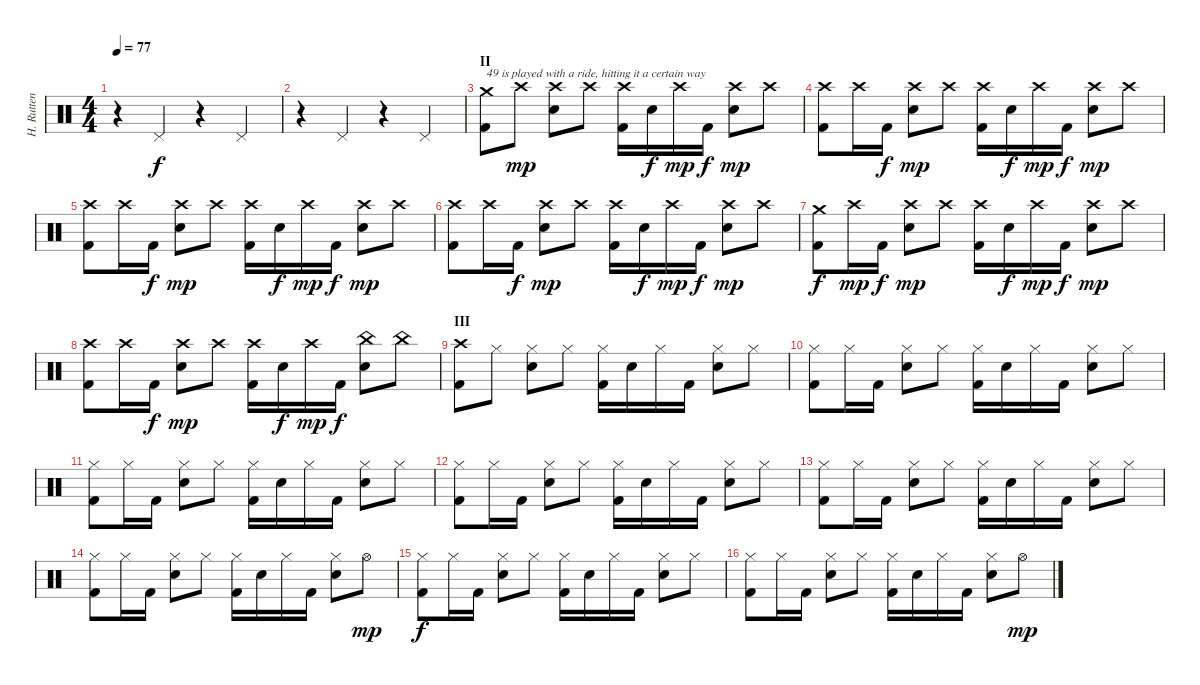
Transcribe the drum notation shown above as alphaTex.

\track ("H. Rutten" "H. Rutten") {instrument percussion}
\staff {score}
\articulation defaults
\ts (4 4)
\tempo 77
\clef neutral
\ks c
r.4{dy f} "Pedal Hi-Hat (hit)".4 r.4 "Pedal Hi-Hat (hit)".4 |
r.4 "Pedal Hi-Hat (hit)".4 r.4 "Pedal Hi-Hat (hit)".4 |
\section ("" "II")
("Kick (hit) 2" "Crash medium (hit)").8{txt "49 is played with a ride, hitting it a certain way"} "Crash high (hit)".8{dy mp} ("Electric Snare (hit)" "Crash high (hit)").8 "Crash high (hit)".8 ("Kick (hit) 2" "Crash high (hit)").16 "Electric Snare (hit)".16{dy f} "Crash high (hit)".16{dy mp} "Kick (hit) 2".16{dy f} ("Electric Snare (hit)" "Crash high (hit)").8{dy mp} "Crash high (hit)".8 |
("Kick (hit) 2" "Crash high (hit)").8 "Crash high (hit)".16 "Kick (hit) 2".16{dy f} ("Electric Snare (hit)" "Crash high (hit)").8{dy mp} "Crash high (hit)".8 ("Kick (hit) 2" "Crash high (hit)").16 "Electric Snare (hit)".16{dy f} "Crash high (hit)".16{dy mp} "Kick (hit) 2".16{dy f} ("Electric Snare (hit)" "Crash high (hit)").8{dy mp} "Crash high (hit)".8 |
("Kick (hit) 2" "Crash high (hit)").8 "Crash high (hit)".16 "Kick (hit) 2".16{dy f} ("Electric Snare (hit)" "Crash high (hit)").8{dy mp} "Crash high (hit)".8 ("Kick (hit) 2" "Crash high (hit)").16 "Electric Snare (hit)".16{dy f} "Crash high (hit)".16{dy mp} "Kick (hit) 2".16{dy f} ("Electric Snare (hit)" "Crash high (hit)").8{dy mp} "Crash high (hit)".8 |
("Kick (hit) 2" "Crash high (hit)").8 "Crash high (hit)".16 "Kick (hit) 2".16{dy f} ("Electric Snare (hit)" "Crash high (hit)").8{dy mp} "Crash high (hit)".8 ("Kick (hit) 2" "Crash high (hit)").16 "Electric Snare (hit)".16{dy f} "Crash high (hit)".16{dy mp} "Kick (hit) 2".16{dy f} ("Electric Snare (hit)" "Crash high (hit)").8{dy mp} "Crash high (hit)".8 |
("Kick (hit) 2" "Crash medium (hit)").8{dy f} "Crash high (hit)".16{dy mp} "Kick (hit) 2".16{dy f} ("Electric Snare (hit)" "Crash high (hit)").8{dy mp} "Crash high (hit)".8 ("Kick (hit) 2" "Crash high (hit)").16 "Electric Snare (hit)".16{dy f} "Crash high (hit)".16{dy mp} "Kick (hit) 2".16{dy f} ("Electric Snare (hit)" "Crash high (hit)").8{dy mp} "Crash high (hit)".8 |
("Kick (hit) 2" "Crash high (hit)").8 "Crash high (hit)".16 "Kick (hit) 2".16{dy f} ("Electric Snare (hit)" "Crash high (hit)").8{dy mp} "Crash high (hit)".8 ("Kick (hit) 2" "Crash high (hit)").16 "Electric Snare (hit)".16{dy f} "Crash high (hit)".16{dy mp} "Kick (hit) 2".16{dy f} ("Electric Snare (hit)" "China (hit)").8 "China (hit)".8 |
\section ("" "III")
("Kick (hit) 2" "Crash high (hit)").8 "Hi-Hat (closed)".8 ("Electric Snare (hit)" "Hi-Hat (closed)").8 "Hi-Hat (closed)".8 ("Kick (hit) 2" "Hi-Hat (closed)").16 "Electric Snare (hit)".16 "Hi-Hat (closed)".16 "Kick (hit) 2".16 ("Electric Snare (hit)" "Hi-Hat (closed)").8 "Hi-Hat (closed)".8 |
("Kick (hit) 2" "Hi-Hat (closed)").8 "Hi-Hat (closed)".16 "Kick (hit) 2".16 ("Electric Snare (hit)" "Hi-Hat (closed)").8 "Hi-Hat (closed)".8 ("Kick (hit) 2" "Hi-Hat (closed)").16 "Electric Snare (hit)".16 "Hi-Hat (closed)".16 "Kick (hit) 2".16 ("Electric Snare (hit)" "Hi-Hat (closed)").8 "Hi-Hat (closed)".8 |
("Kick (hit) 2" "Hi-Hat (closed)").8 "Hi-Hat (closed)".16 "Kick (hit) 2".16 ("Electric Snare (hit)" "Hi-Hat (closed)").8 "Hi-Hat (closed)".8 ("Kick (hit) 2" "Hi-Hat (closed)").16 "Electric Snare (hit)".16 "Hi-Hat (closed)".16 "Kick (hit) 2".16 ("Electric Snare (hit)" "Hi-Hat (closed)").8 "Hi-Hat (closed)".8 |
("Kick (hit) 2" "Hi-Hat (closed)").8 "Hi-Hat (closed)".16 "Kick (hit) 2".16 ("Electric Snare (hit)" "Hi-Hat (closed)").8 "Hi-Hat (closed)".8 ("Kick (hit) 2" "Hi-Hat (closed)").16 "Electric Snare (hit)".16 "Hi-Hat (closed)".16 "Kick (hit) 2".16 ("Electric Snare (hit)" "Hi-Hat (closed)").8 "Hi-Hat (closed)".8 |
("Kick (hit) 2" "Hi-Hat (closed)").8 "Hi-Hat (closed)".16 "Kick (hit) 2".16 ("Electric Snare (hit)" "Hi-Hat (closed)").8 "Hi-Hat (closed)".8 ("Kick (hit) 2" "Hi-Hat (closed)").16 "Electric Snare (hit)".16 "Hi-Hat (closed)".16 "Kick (hit) 2".16 ("Electric Snare (hit)" "Hi-Hat (closed)").8 "Hi-Hat (closed)".8 |
("Kick (hit) 2" "Hi-Hat (closed)").8 "Hi-Hat (closed)".16 "Kick (hit) 2".16 ("Electric Snare (hit)" "Hi-Hat (closed)").8 "Hi-Hat (closed)".8 ("Kick (hit) 2" "Hi-Hat (closed)").16 "Electric Snare (hit)".16 "Hi-Hat (closed)".16 "Kick (hit) 2".16 ("Electric Snare (hit)" "Hi-Hat (closed)").8 "Hi-Hat (open)".8{dy mp} |
("Kick (hit) 2" "Hi-Hat (closed)").8{dy f} "Hi-Hat (closed)".16 "Kick (hit) 2".16 ("Electric Snare (hit)" "Hi-Hat (closed)").8 "Hi-Hat (closed)".8 ("Kick (hit) 2" "Hi-Hat (closed)").16 "Electric Snare (hit)".16 "Hi-Hat (closed)".16 "Kick (hit) 2".16 ("Electric Snare (hit)" "Hi-Hat (closed)").8 "Hi-Hat (closed)".8 |
("Kick (hit) 2" "Hi-Hat (closed)").8 "Hi-Hat (closed)".16 "Kick (hit) 2".16 ("Electric Snare (hit)" "Hi-Hat (closed)").8 "Hi-Hat (closed)".8 ("Kick (hit) 2" "Hi-Hat (closed)").16 "Electric Snare (hit)".16 "Hi-Hat (closed)".16 "Kick (hit) 2".16 ("Electric Snare (hit)" "Hi-Hat (closed)").8 "Hi-Hat (open)".8{dy mp}
